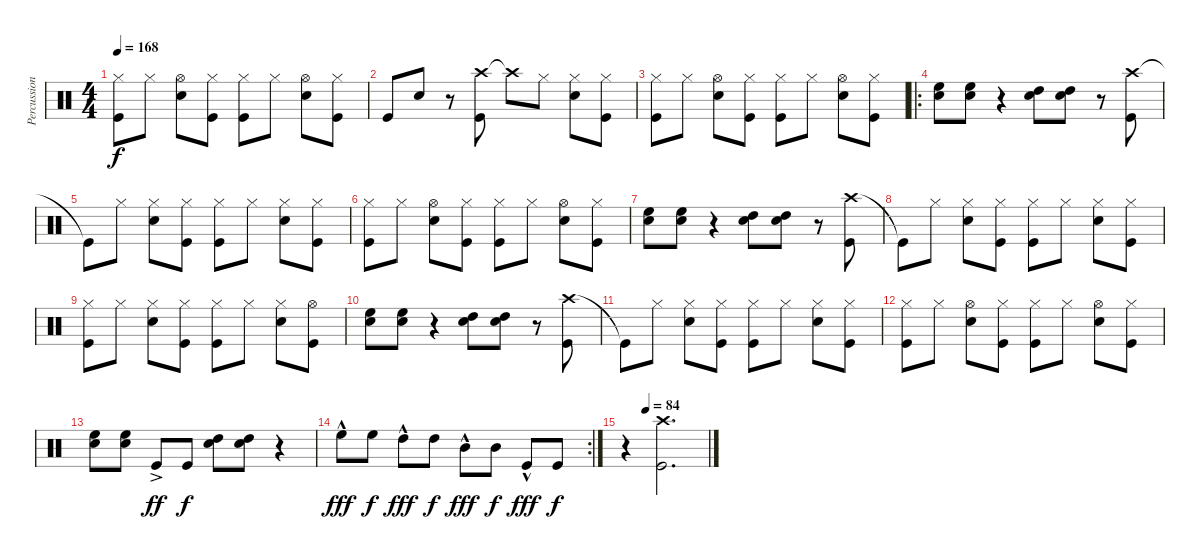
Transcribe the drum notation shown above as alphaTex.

\track ("Percussions" "Percussion") {instrument percussion}
\staff {score}
\articulation defaults
\ts (4 4)
\tempo 168
\clef neutral
\ks c
("Hi-Hat (closed)" "Kick (hit)").8{dy f} "Hi-Hat (closed)".8 ("Hi-Hat (open)" "Snare (hit) 2").8 ("Hi-Hat (closed)" "Kick (hit)").8 ("Hi-Hat (closed)" "Kick (hit)").8 "Hi-Hat (closed)".8 ("Hi-Hat (open)" "Snare (hit) 2").8 ("Hi-Hat (closed)" "Kick (hit)").8 |
"Kick (hit)".8 "Snare (hit) 2".8 r.8 ("Crash high (hit)" "Kick (hit)").8 "Crash high (hit)"{t}.8 "Hi-Hat (closed)".8 ("Hi-Hat (closed)" "Snare (hit) 2").8 ("Hi-Hat (closed)" "Kick (hit)").8 |
("Hi-Hat (closed)" "Kick (hit)").8 "Hi-Hat (closed)".8 ("Hi-Hat (open)" "Snare (hit) 2").8 ("Hi-Hat (closed)" "Kick (hit)").8 ("Hi-Hat (closed)" "Kick (hit)").8 "Hi-Hat (closed)".8 ("Hi-Hat (open)" "Snare (hit) 2").8 ("Hi-Hat (closed)" "Kick (hit)").8 |
\ro
("High Floor Tom (hit)" "Snare (hit) 2").8 ("High Floor Tom (hit)" "Snare (hit) 2").8 r.4 ("High Tom (hit)" "Snare (hit) 2").8 ("High Tom (hit)" "Snare (hit) 2").8 r.8 ("Crash high (hit)" "Kick (hit)").8 |
"Kick (hit)"{t}.8 "Hi-Hat (closed)".8 ("Hi-Hat (closed)" "Snare (hit) 2").8 ("Hi-Hat (closed)" "Kick (hit)").8 ("Hi-Hat (closed)" "Kick (hit)").8 "Hi-Hat (closed)".8 ("Hi-Hat (closed)" "Snare (hit) 2").8 ("Hi-Hat (closed)" "Kick (hit)").8 |
("Hi-Hat (closed)" "Kick (hit)").8 "Hi-Hat (closed)".8 ("Hi-Hat (open)" "Snare (hit) 2").8 ("Hi-Hat (closed)" "Kick (hit)").8 ("Hi-Hat (closed)" "Kick (hit)").8 "Hi-Hat (closed)".8 ("Hi-Hat (open)" "Snare (hit) 2").8 ("Hi-Hat (closed)" "Kick (hit)").8 |
("High Floor Tom (hit)" "Snare (hit) 2").8 ("High Floor Tom (hit)" "Snare (hit) 2").8 r.4 ("High Tom (hit)" "Snare (hit) 2").8 ("High Tom (hit)" "Snare (hit) 2").8 r.8 ("Crash high (hit)" "Kick (hit)").8 |
"Kick (hit)"{t}.8 "Hi-Hat (closed)".8 ("Hi-Hat (closed)" "Snare (hit) 2").8 ("Hi-Hat (closed)" "Kick (hit)").8 ("Hi-Hat (closed)" "Kick (hit)").8 "Hi-Hat (closed)".8 ("Hi-Hat (closed)" "Snare (hit) 2").8 ("Hi-Hat (closed)" "Kick (hit)").8 |
("Hi-Hat (closed)" "Kick (hit)").8 "Hi-Hat (closed)".8 ("Hi-Hat (closed)" "Snare (hit) 2").8 ("Hi-Hat (closed)" "Kick (hit)").8 ("Hi-Hat (closed)" "Kick (hit)").8 "Hi-Hat (closed)".8 ("Hi-Hat (closed)" "Snare (hit) 2").8 ("Hi-Hat (open)" "Kick (hit)").8 |
("High Floor Tom (hit)" "Snare (hit) 2").8 ("High Floor Tom (hit)" "Snare (hit) 2").8 r.4 ("High Tom (hit)" "Snare (hit) 2").8 ("High Tom (hit)" "Snare (hit) 2").8 r.8 ("Crash high (hit)" "Kick (hit)").8 |
"Kick (hit)"{t}.8 "Hi-Hat (closed)".8 ("Hi-Hat (closed)" "Snare (hit) 2").8 ("Hi-Hat (closed)" "Kick (hit)").8 ("Hi-Hat (closed)" "Kick (hit)").8 "Hi-Hat (closed)".8 ("Hi-Hat (closed)" "Snare (hit) 2").8 ("Hi-Hat (closed)" "Kick (hit)").8 |
("Hi-Hat (closed)" "Kick (hit)").8 "Hi-Hat (closed)".8 ("Hi-Hat (open)" "Snare (hit) 2").8 ("Hi-Hat (closed)" "Kick (hit)").8 ("Hi-Hat (closed)" "Kick (hit)").8 "Hi-Hat (closed)".8 ("Hi-Hat (open)" "Snare (hit) 2").8 ("Hi-Hat (closed)" "Kick (hit)").8 |
("High Floor Tom (hit)" "Snare (hit) 2").8 ("High Floor Tom (hit)" "Snare (hit) 2").8 "Kick (hit)"{ac}.8{dy ff} "Kick (hit)".8{dy f} ("High Tom (hit)" "Snare (hit) 2").8 ("High Tom (hit)" "Snare (hit) 2").8 r.4 |
\rc 2 "High Floor Tom (hit)"{hac}.8{dy fff} "High Floor Tom (hit)".8{dy f} "High Tom (hit)"{hac}.8{dy fff} "High Tom (hit)".8{dy f} "Mid Tom (hit)"{hac}.8{dy fff} "Mid Tom (hit)".8{dy f} "Kick (hit)"{hac}.8{dy fff} "Kick (hit)".8{dy f}
|
\tempo (84 0.25)
r.4 ("Crash high (hit)" "Kick (hit)").2{d}
